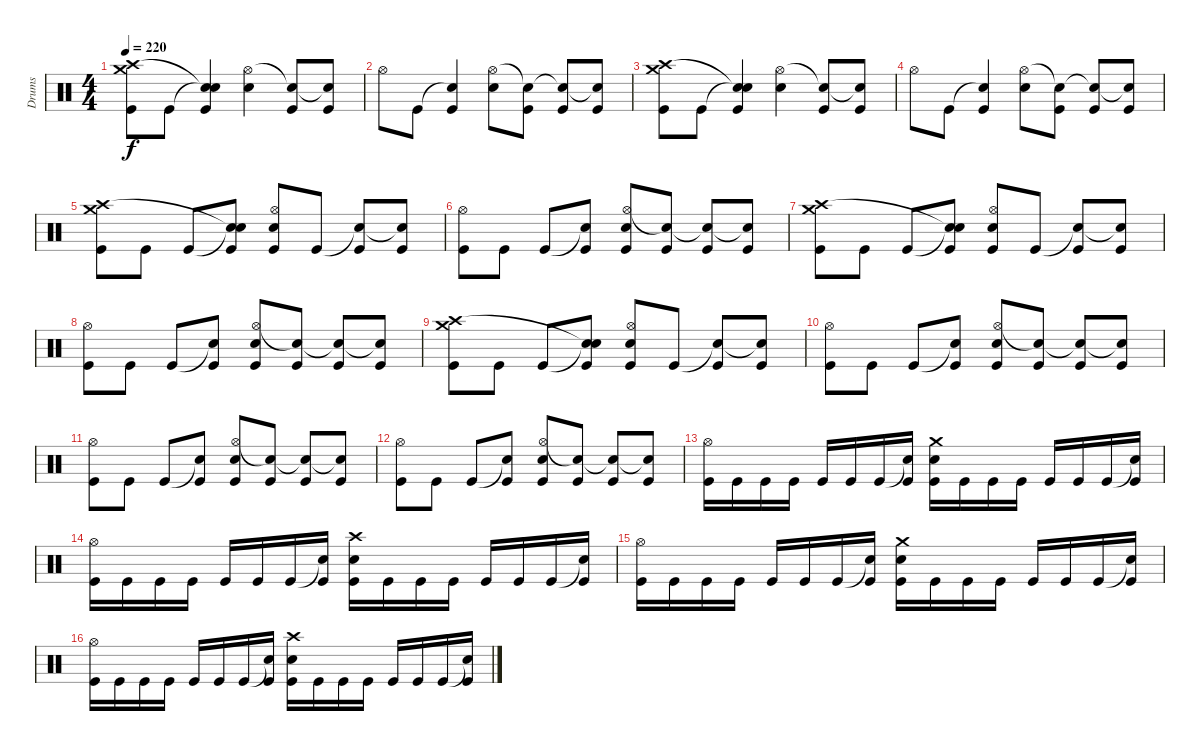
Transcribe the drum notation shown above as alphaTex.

\track ("Drums" "Drums") {instrument percussion}
\staff {score}
\articulation defaults
\ts (4 4)
\tempo 220
\clef neutral
\ks c
("Crash medium (hit)" "Crash high (hit)" "Kick (hit)").8{dy f} "Kick (hit)".8 ("Snare (hit)"{t} "Snare (hit)"{t} "Kick (hit)").4 ("Hi-Hat (open)" "Electric Snare (hit)").4 ("Snare (hit)"{t} "Kick (hit)").8 ("Snare (hit)"{t} "Kick (hit)").8 |
"Hi-Hat (open)".8 "Kick (hit)".8 ("Snare (hit)"{t} "Kick (hit)").4 ("Hi-Hat (open)" "Electric Snare (hit)").8 ("Snare (hit)"{t} "Kick (hit)").8 ("Snare (hit)"{t} "Kick (hit)").8 ("Snare (hit)"{t} "Kick (hit)").8 |
("Crash medium (hit)" "Crash high (hit)" "Kick (hit)").8 "Kick (hit)".8 ("Snare (hit)"{t} "Snare (hit)"{t} "Kick (hit)").4 ("Hi-Hat (open)" "Electric Snare (hit)").4 ("Snare (hit)"{t} "Kick (hit)").8 ("Snare (hit)"{t} "Kick (hit)").8 |
"Hi-Hat (open)".8 "Kick (hit)".8 ("Snare (hit)"{t} "Kick (hit)").4 ("Hi-Hat (open)" "Electric Snare (hit)").8 ("Snare (hit)"{t} "Kick (hit)").8 ("Snare (hit)"{t} "Kick (hit)").8 ("Snare (hit)"{t} "Kick (hit)").8 |
("Crash medium (hit)" "Crash high (hit)" "Kick (hit)").8 "Kick (hit)".8 "Kick (hit)".8 ("Snare (hit)"{t} "Snare (hit)"{t} "Kick (hit)").8 ("Hi-Hat (open)" "Electric Snare (hit)" "Kick (hit)").8 "Kick (hit)".8 ("Snare (hit)"{t} "Kick (hit)").8 ("Snare (hit)"{t} "Kick (hit)").8 |
("Hi-Hat (open)" "Kick (hit)").8 "Kick (hit)".8 "Kick (hit)".8 ("Snare (hit)"{t} "Kick (hit)").8 ("Hi-Hat (open)" "Electric Snare (hit)" "Kick (hit)").8 ("Snare (hit)"{t} "Kick (hit)").8 ("Snare (hit)"{t} "Kick (hit)").8 ("Snare (hit)"{t} "Kick (hit)").8 |
("Crash medium (hit)" "Crash high (hit)" "Kick (hit)").8 "Kick (hit)".8 "Kick (hit)".8 ("Snare (hit)"{t} "Snare (hit)"{t} "Kick (hit)").8 ("Hi-Hat (open)" "Electric Snare (hit)" "Kick (hit)").8 "Kick (hit)".8 ("Snare (hit)"{t} "Kick (hit)").8 ("Snare (hit)"{t} "Kick (hit)").8 |
("Hi-Hat (open)" "Kick (hit)").8 "Kick (hit)".8 "Kick (hit)".8 ("Snare (hit)"{t} "Kick (hit)").8 ("Hi-Hat (open)" "Electric Snare (hit)" "Kick (hit)").8 ("Snare (hit)"{t} "Kick (hit)").8 ("Snare (hit)"{t} "Kick (hit)").8 ("Snare (hit)"{t} "Kick (hit)").8 |
("Crash medium (hit)" "Crash high (hit)" "Kick (hit)").8 "Kick (hit)".8 "Kick (hit)".8 ("Snare (hit)"{t} "Snare (hit)"{t} "Kick (hit)").8 ("Hi-Hat (open)" "Electric Snare (hit)" "Kick (hit)").8 "Kick (hit)".8 ("Snare (hit)"{t} "Kick (hit)").8 ("Snare (hit)"{t} "Kick (hit)").8 |
("Hi-Hat (open)" "Kick (hit)").8 "Kick (hit)".8 "Kick (hit)".8 ("Snare (hit)"{t} "Kick (hit)").8 ("Hi-Hat (open)" "Electric Snare (hit)" "Kick (hit)").8 ("Snare (hit)"{t} "Kick (hit)").8 ("Snare (hit)"{t} "Kick (hit)").8 ("Snare (hit)"{t} "Kick (hit)").8 |
("Hi-Hat (open)" "Kick (hit)").8 "Kick (hit)".8 "Kick (hit)".8 ("Snare (hit)"{t} "Kick (hit)").8 ("Hi-Hat (open)" "Electric Snare (hit)" "Kick (hit)").8 ("Snare (hit)"{t} "Kick (hit)").8 ("Snare (hit)"{t} "Kick (hit)").8 ("Snare (hit)"{t} "Kick (hit)").8 |
("Hi-Hat (open)" "Kick (hit)").8 "Kick (hit)".8 "Kick (hit)".8 ("Snare (hit)"{t} "Kick (hit)").8 ("Hi-Hat (open)" "Electric Snare (hit)" "Kick (hit)").8 ("Snare (hit)"{t} "Kick (hit)").8 ("Snare (hit)"{t} "Kick (hit)").8 ("Snare (hit)"{t} "Kick (hit)").8 |
("Hi-Hat (open)" "Kick (hit)").16 "Kick (hit)".16 "Kick (hit)".16 "Kick (hit)".16 "Kick (hit)".16 "Kick (hit)".16 "Kick (hit)".16 ("Snare (hit)"{t} "Kick (hit)").16 ("Crash medium (hit)" "Electric Snare (hit)" "Kick (hit)").16 "Kick (hit)".16 "Kick (hit)".16 "Kick (hit)".16 "Kick (hit)".16 "Kick (hit)".16 "Kick (hit)".16 ("Snare (hit)"{t} "Kick (hit)").16 |
("Hi-Hat (open)" "Kick (hit)").16 "Kick (hit)".16 "Kick (hit)".16 "Kick (hit)".16 "Kick (hit)".16 "Kick (hit)".16 "Kick (hit)".16 ("Snare (hit)"{t} "Kick (hit)").16 ("Crash high (hit)" "Electric Snare (hit)" "Kick (hit)").16 "Kick (hit)".16 "Kick (hit)".16 "Kick (hit)".16 "Kick (hit)".16 "Kick (hit)".16 "Kick (hit)".16 ("Snare (hit)"{t} "Kick (hit)").16 |
("Hi-Hat (open)" "Kick (hit)").16 "Kick (hit)".16 "Kick (hit)".16 "Kick (hit)".16 "Kick (hit)".16 "Kick (hit)".16 "Kick (hit)".16 ("Snare (hit)"{t} "Kick (hit)").16 ("Crash medium (hit)" "Electric Snare (hit)" "Kick (hit)").16 "Kick (hit)".16 "Kick (hit)".16 "Kick (hit)".16 "Kick (hit)".16 "Kick (hit)".16 "Kick (hit)".16 ("Snare (hit)"{t} "Kick (hit)").16 |
("Hi-Hat (open)" "Kick (hit)").16 "Kick (hit)".16 "Kick (hit)".16 "Kick (hit)".16 "Kick (hit)".16 "Kick (hit)".16 "Kick (hit)".16 ("Snare (hit)"{t} "Kick (hit)").16 ("Crash high (hit)" "Electric Snare (hit)" "Kick (hit)").16 "Kick (hit)".16 "Kick (hit)".16 "Kick (hit)".16 "Kick (hit)".16 "Kick (hit)".16 "Kick (hit)".16 ("Snare (hit)"{t} "Kick (hit)").16
